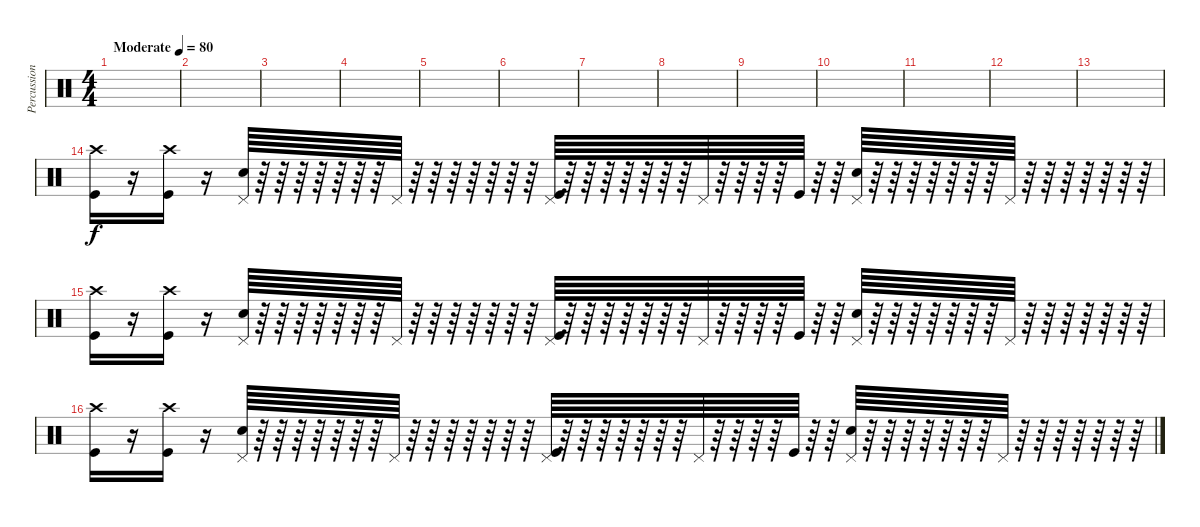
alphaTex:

\track ("Percussion" "Percussion") {instrument percussion}
\staff {score}
\articulation defaults
\ts (4 4)
\tempo (80 "Moderate")
\clef neutral
\ks c
|
|
|
|
|
|
|
|
|
|
|
|
|
("Crash high (hit)" "Kick (hit)").16 r.16 ("Crash high (hit)" "Kick (hit)").16 r.16 ("Snare (hit) 2" "Pedal Hi-Hat (hit)").64 r.64 r.64 r.64 r.64 r.64 r.64 r.64 "Pedal Hi-Hat (hit)".64 r.64 r.64 r.64 r.64 r.64 r.64 r.64 ("Pedal Hi-Hat (hit)" "Kick (hit)").64 r.64 r.64 r.64 r.64 r.64 r.64 r.64 "Pedal Hi-Hat (hit)".64 r.64 r.64 r.64 r.64 "Kick (hit)".64 r.64 r.64 ("Snare (hit) 2" "Pedal Hi-Hat (hit)").64 r.64 r.64 r.64 r.64 r.64 r.64 r.64 "Pedal Hi-Hat (hit)".64 r.64 r.64 r.64 r.64 r.64 r.64 r.64 |
("Crash high (hit)" "Kick (hit)").16 r.16 ("Crash high (hit)" "Kick (hit)").16 r.16 ("Snare (hit) 2" "Pedal Hi-Hat (hit)").64 r.64 r.64 r.64 r.64 r.64 r.64 r.64 "Pedal Hi-Hat (hit)".64 r.64 r.64 r.64 r.64 r.64 r.64 r.64 ("Pedal Hi-Hat (hit)" "Kick (hit)").64 r.64 r.64 r.64 r.64 r.64 r.64 r.64 "Pedal Hi-Hat (hit)".64 r.64 r.64 r.64 r.64 "Kick (hit)".64 r.64 r.64 ("Snare (hit) 2" "Pedal Hi-Hat (hit)").64 r.64 r.64 r.64 r.64 r.64 r.64 r.64 "Pedal Hi-Hat (hit)".64 r.64 r.64 r.64 r.64 r.64 r.64 r.64 |
("Crash high (hit)" "Kick (hit)").16 r.16 ("Crash high (hit)" "Kick (hit)").16 r.16 ("Snare (hit) 2" "Pedal Hi-Hat (hit)").64 r.64 r.64 r.64 r.64 r.64 r.64 r.64 "Pedal Hi-Hat (hit)".64 r.64 r.64 r.64 r.64 r.64 r.64 r.64 ("Pedal Hi-Hat (hit)" "Kick (hit)").64 r.64 r.64 r.64 r.64 r.64 r.64 r.64 "Pedal Hi-Hat (hit)".64 r.64 r.64 r.64 r.64 "Kick (hit)".64 r.64 r.64 ("Snare (hit) 2" "Pedal Hi-Hat (hit)").64 r.64 r.64 r.64 r.64 r.64 r.64 r.64 "Pedal Hi-Hat (hit)".64 r.64 r.64 r.64 r.64 r.64 r.64 r.64
